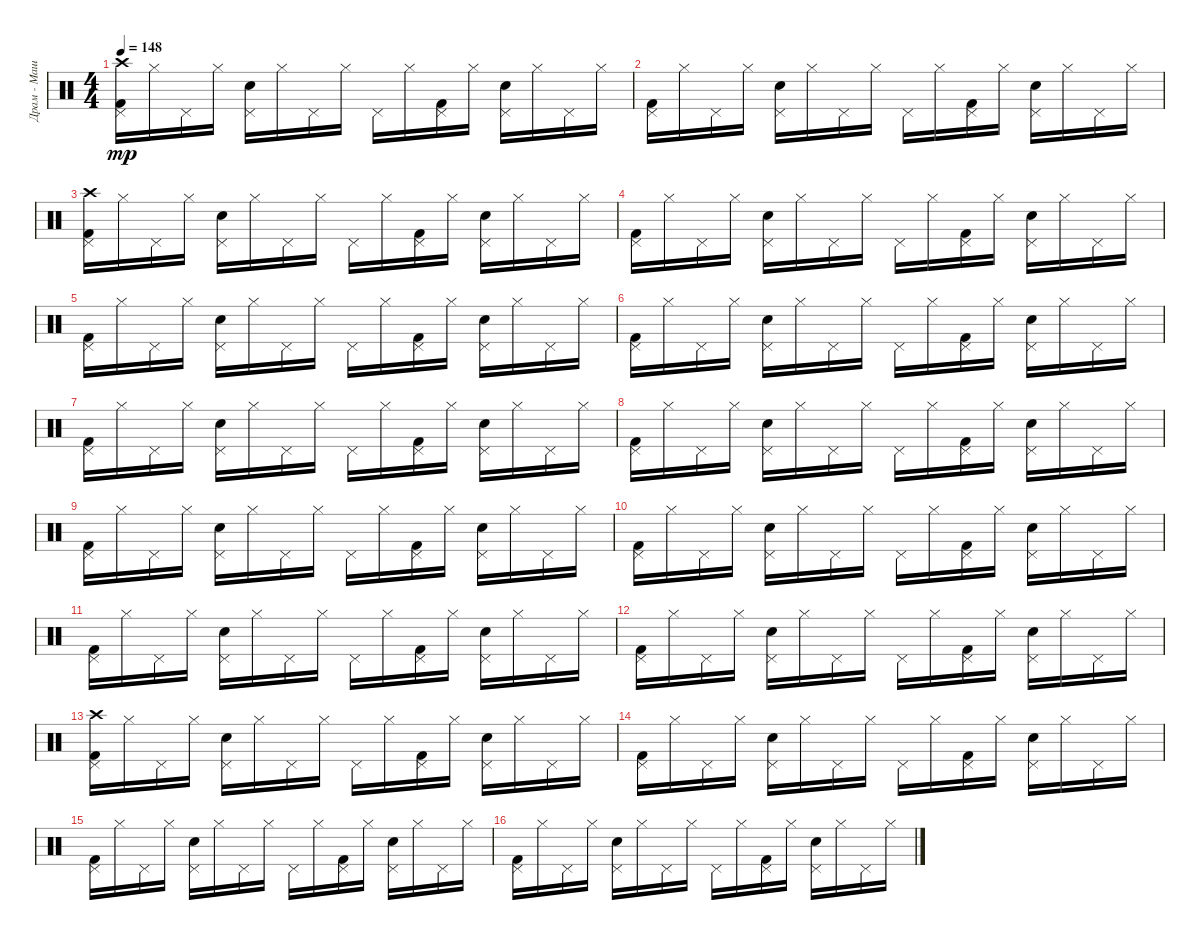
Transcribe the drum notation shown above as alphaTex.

\track ("Драм - Машина 2" "Драм - Маш") {instrument percussion}
\staff {score}
\articulation defaults
\ts (4 4)
\tempo 148
\clef neutral
\ks c
("Crash high (hit)" "Kick (hit) 2" "Pedal Hi-Hat (hit)").16{dy mp} "Hi-Hat (closed)".16 "Pedal Hi-Hat (hit)".16 "Hi-Hat (closed)".16 ("Snare (hit) 2" "Pedal Hi-Hat (hit)").16 "Hi-Hat (closed)".16 "Pedal Hi-Hat (hit)".16 "Hi-Hat (closed)".16 "Pedal Hi-Hat (hit)".16 "Hi-Hat (closed)".16 ("Kick (hit) 2" "Pedal Hi-Hat (hit)").16 "Hi-Hat (closed)".16 ("Snare (hit) 2" "Pedal Hi-Hat (hit)").16 "Hi-Hat (closed)".16 "Pedal Hi-Hat (hit)".16 "Hi-Hat (closed)".16 |
("Kick (hit) 2" "Pedal Hi-Hat (hit)").16 "Hi-Hat (closed)".16 "Pedal Hi-Hat (hit)".16 "Hi-Hat (closed)".16 ("Snare (hit) 2" "Pedal Hi-Hat (hit)").16 "Hi-Hat (closed)".16 "Pedal Hi-Hat (hit)".16 "Hi-Hat (closed)".16 "Pedal Hi-Hat (hit)".16 "Hi-Hat (closed)".16 ("Kick (hit) 2" "Pedal Hi-Hat (hit)").16 "Hi-Hat (closed)".16 ("Snare (hit) 2" "Pedal Hi-Hat (hit)").16 "Hi-Hat (closed)".16 "Pedal Hi-Hat (hit)".16 "Hi-Hat (closed)".16 |
("Crash high (hit)" "Kick (hit) 2" "Pedal Hi-Hat (hit)").16 "Hi-Hat (closed)".16 "Pedal Hi-Hat (hit)".16 "Hi-Hat (closed)".16 ("Snare (hit) 2" "Pedal Hi-Hat (hit)").16 "Hi-Hat (closed)".16 "Pedal Hi-Hat (hit)".16 "Hi-Hat (closed)".16 "Pedal Hi-Hat (hit)".16 "Hi-Hat (closed)".16 ("Kick (hit) 2" "Pedal Hi-Hat (hit)").16 "Hi-Hat (closed)".16 ("Snare (hit) 2" "Pedal Hi-Hat (hit)").16 "Hi-Hat (closed)".16 "Pedal Hi-Hat (hit)".16 "Hi-Hat (closed)".16 |
("Kick (hit) 2" "Pedal Hi-Hat (hit)").16 "Hi-Hat (closed)".16 "Pedal Hi-Hat (hit)".16 "Hi-Hat (closed)".16 ("Snare (hit) 2" "Pedal Hi-Hat (hit)").16 "Hi-Hat (closed)".16 "Pedal Hi-Hat (hit)".16 "Hi-Hat (closed)".16 "Pedal Hi-Hat (hit)".16 "Hi-Hat (closed)".16 ("Kick (hit) 2" "Pedal Hi-Hat (hit)").16 "Hi-Hat (closed)".16 ("Snare (hit) 2" "Pedal Hi-Hat (hit)").16 "Hi-Hat (closed)".16 "Pedal Hi-Hat (hit)".16 "Hi-Hat (closed)".16 |
("Kick (hit) 2" "Pedal Hi-Hat (hit)").16 "Hi-Hat (closed)".16 "Pedal Hi-Hat (hit)".16 "Hi-Hat (closed)".16 ("Snare (hit) 2" "Pedal Hi-Hat (hit)").16 "Hi-Hat (closed)".16 "Pedal Hi-Hat (hit)".16 "Hi-Hat (closed)".16 "Pedal Hi-Hat (hit)".16 "Hi-Hat (closed)".16 ("Kick (hit) 2" "Pedal Hi-Hat (hit)").16 "Hi-Hat (closed)".16 ("Snare (hit) 2" "Pedal Hi-Hat (hit)").16 "Hi-Hat (closed)".16 "Pedal Hi-Hat (hit)".16 "Hi-Hat (closed)".16 |
("Kick (hit) 2" "Pedal Hi-Hat (hit)").16 "Hi-Hat (closed)".16 "Pedal Hi-Hat (hit)".16 "Hi-Hat (closed)".16 ("Snare (hit) 2" "Pedal Hi-Hat (hit)").16 "Hi-Hat (closed)".16 "Pedal Hi-Hat (hit)".16 "Hi-Hat (closed)".16 "Pedal Hi-Hat (hit)".16 "Hi-Hat (closed)".16 ("Kick (hit) 2" "Pedal Hi-Hat (hit)").16 "Hi-Hat (closed)".16 ("Snare (hit) 2" "Pedal Hi-Hat (hit)").16 "Hi-Hat (closed)".16 "Pedal Hi-Hat (hit)".16 "Hi-Hat (closed)".16 |
("Kick (hit) 2" "Pedal Hi-Hat (hit)").16 "Hi-Hat (closed)".16 "Pedal Hi-Hat (hit)".16 "Hi-Hat (closed)".16 ("Snare (hit) 2" "Pedal Hi-Hat (hit)").16 "Hi-Hat (closed)".16 "Pedal Hi-Hat (hit)".16 "Hi-Hat (closed)".16 "Pedal Hi-Hat (hit)".16 "Hi-Hat (closed)".16 ("Kick (hit) 2" "Pedal Hi-Hat (hit)").16 "Hi-Hat (closed)".16 ("Snare (hit) 2" "Pedal Hi-Hat (hit)").16 "Hi-Hat (closed)".16 "Pedal Hi-Hat (hit)".16 "Hi-Hat (closed)".16 |
("Kick (hit) 2" "Pedal Hi-Hat (hit)").16 "Hi-Hat (closed)".16 "Pedal Hi-Hat (hit)".16 "Hi-Hat (closed)".16 ("Snare (hit) 2" "Pedal Hi-Hat (hit)").16 "Hi-Hat (closed)".16 "Pedal Hi-Hat (hit)".16 "Hi-Hat (closed)".16 "Pedal Hi-Hat (hit)".16 "Hi-Hat (closed)".16 ("Kick (hit) 2" "Pedal Hi-Hat (hit)").16 "Hi-Hat (closed)".16 ("Snare (hit) 2" "Pedal Hi-Hat (hit)").16 "Hi-Hat (closed)".16 "Pedal Hi-Hat (hit)".16 "Hi-Hat (closed)".16 |
("Kick (hit) 2" "Pedal Hi-Hat (hit)").16 "Hi-Hat (closed)".16 "Pedal Hi-Hat (hit)".16 "Hi-Hat (closed)".16 ("Snare (hit) 2" "Pedal Hi-Hat (hit)").16 "Hi-Hat (closed)".16 "Pedal Hi-Hat (hit)".16 "Hi-Hat (closed)".16 "Pedal Hi-Hat (hit)".16 "Hi-Hat (closed)".16 ("Kick (hit) 2" "Pedal Hi-Hat (hit)").16 "Hi-Hat (closed)".16 ("Snare (hit) 2" "Pedal Hi-Hat (hit)").16 "Hi-Hat (closed)".16 "Pedal Hi-Hat (hit)".16 "Hi-Hat (closed)".16 |
("Kick (hit) 2" "Pedal Hi-Hat (hit)").16 "Hi-Hat (closed)".16 "Pedal Hi-Hat (hit)".16 "Hi-Hat (closed)".16 ("Snare (hit) 2" "Pedal Hi-Hat (hit)").16 "Hi-Hat (closed)".16 "Pedal Hi-Hat (hit)".16 "Hi-Hat (closed)".16 "Pedal Hi-Hat (hit)".16 "Hi-Hat (closed)".16 ("Kick (hit) 2" "Pedal Hi-Hat (hit)").16 "Hi-Hat (closed)".16 ("Snare (hit) 2" "Pedal Hi-Hat (hit)").16 "Hi-Hat (closed)".16 "Pedal Hi-Hat (hit)".16 "Hi-Hat (closed)".16 |
("Kick (hit) 2" "Pedal Hi-Hat (hit)").16 "Hi-Hat (closed)".16 "Pedal Hi-Hat (hit)".16 "Hi-Hat (closed)".16 ("Snare (hit) 2" "Pedal Hi-Hat (hit)").16 "Hi-Hat (closed)".16 "Pedal Hi-Hat (hit)".16 "Hi-Hat (closed)".16 "Pedal Hi-Hat (hit)".16 "Hi-Hat (closed)".16 ("Kick (hit) 2" "Pedal Hi-Hat (hit)").16 "Hi-Hat (closed)".16 ("Snare (hit) 2" "Pedal Hi-Hat (hit)").16 "Hi-Hat (closed)".16 "Pedal Hi-Hat (hit)".16 "Hi-Hat (closed)".16 |
("Kick (hit) 2" "Pedal Hi-Hat (hit)").16 "Hi-Hat (closed)".16 "Pedal Hi-Hat (hit)".16 "Hi-Hat (closed)".16 ("Snare (hit) 2" "Pedal Hi-Hat (hit)").16 "Hi-Hat (closed)".16 "Pedal Hi-Hat (hit)".16 "Hi-Hat (closed)".16 "Pedal Hi-Hat (hit)".16 "Hi-Hat (closed)".16 ("Kick (hit) 2" "Pedal Hi-Hat (hit)").16 "Hi-Hat (closed)".16 ("Snare (hit) 2" "Pedal Hi-Hat (hit)").16 "Hi-Hat (closed)".16 "Pedal Hi-Hat (hit)".16 "Hi-Hat (closed)".16 |
("Crash high (hit)" "Kick (hit) 2" "Pedal Hi-Hat (hit)").16 "Hi-Hat (closed)".16 "Pedal Hi-Hat (hit)".16 "Hi-Hat (closed)".16 ("Snare (hit) 2" "Pedal Hi-Hat (hit)").16 "Hi-Hat (closed)".16 "Pedal Hi-Hat (hit)".16 "Hi-Hat (closed)".16 "Pedal Hi-Hat (hit)".16 "Hi-Hat (closed)".16 ("Kick (hit) 2" "Pedal Hi-Hat (hit)").16 "Hi-Hat (closed)".16 ("Snare (hit) 2" "Pedal Hi-Hat (hit)").16 "Hi-Hat (closed)".16 "Pedal Hi-Hat (hit)".16 "Hi-Hat (closed)".16 |
("Kick (hit) 2" "Pedal Hi-Hat (hit)").16 "Hi-Hat (closed)".16 "Pedal Hi-Hat (hit)".16 "Hi-Hat (closed)".16 ("Snare (hit) 2" "Pedal Hi-Hat (hit)").16 "Hi-Hat (closed)".16 "Pedal Hi-Hat (hit)".16 "Hi-Hat (closed)".16 "Pedal Hi-Hat (hit)".16 "Hi-Hat (closed)".16 ("Kick (hit) 2" "Pedal Hi-Hat (hit)").16 "Hi-Hat (closed)".16 ("Snare (hit) 2" "Pedal Hi-Hat (hit)").16 "Hi-Hat (closed)".16 "Pedal Hi-Hat (hit)".16 "Hi-Hat (closed)".16 |
("Kick (hit) 2" "Pedal Hi-Hat (hit)").16 "Hi-Hat (closed)".16 "Pedal Hi-Hat (hit)".16 "Hi-Hat (closed)".16 ("Snare (hit) 2" "Pedal Hi-Hat (hit)").16 "Hi-Hat (closed)".16 "Pedal Hi-Hat (hit)".16 "Hi-Hat (closed)".16 "Pedal Hi-Hat (hit)".16 "Hi-Hat (closed)".16 ("Kick (hit) 2" "Pedal Hi-Hat (hit)").16 "Hi-Hat (closed)".16 ("Snare (hit) 2" "Pedal Hi-Hat (hit)").16 "Hi-Hat (closed)".16 "Pedal Hi-Hat (hit)".16 "Hi-Hat (closed)".16 |
("Kick (hit) 2" "Pedal Hi-Hat (hit)").16 "Hi-Hat (closed)".16 "Pedal Hi-Hat (hit)".16 "Hi-Hat (closed)".16 ("Snare (hit) 2" "Pedal Hi-Hat (hit)").16 "Hi-Hat (closed)".16 "Pedal Hi-Hat (hit)".16 "Hi-Hat (closed)".16 "Pedal Hi-Hat (hit)".16 "Hi-Hat (closed)".16 ("Kick (hit) 2" "Pedal Hi-Hat (hit)").16 "Hi-Hat (closed)".16 ("Snare (hit) 2" "Pedal Hi-Hat (hit)").16 "Hi-Hat (closed)".16 "Pedal Hi-Hat (hit)".16 "Hi-Hat (closed)".16
